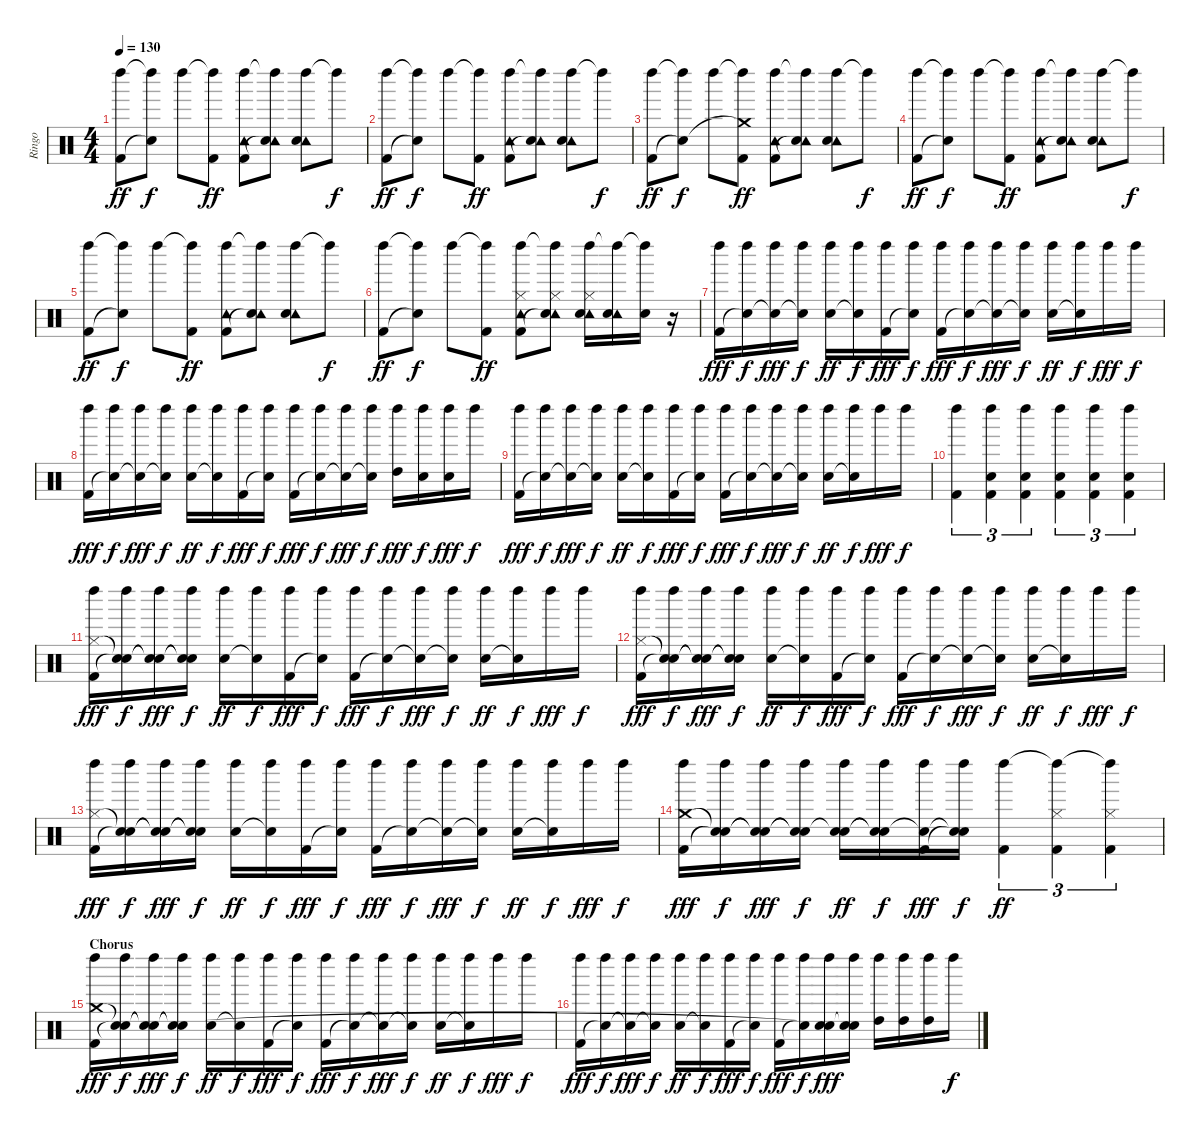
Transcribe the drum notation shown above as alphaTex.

\track ("Ringo" "Ringo") {instrument percussion}
\staff {score}
\articulation defaults
\ts (4 4)
\tempo 130
\clef neutral
\ks c
("Left Maraca (hit)" "Kick (hit) 2").8{dy ff} ("Left Maraca (hit)"{t} "Snare (hit)"{t}).8{dy f} "Left Maraca (hit)".8 ("Left Maraca (hit)"{t} "Kick (hit) 2").8{dy ff} ("Left Maraca (hit)" "Tambourine (hit)" "Kick (hit) 2").8 ("Left Maraca (hit)"{t} "Tambourine (hit)" "Snare (hit)"{t}).8 ("Left Maraca (hit)" "Tambourine (hit)" "Electric Snare (hit)").8 "Left Maraca (hit)"{t}.8{dy f} |
("Left Maraca (hit)" "Kick (hit) 2").8{dy ff} ("Left Maraca (hit)"{t} "Snare (hit)"{t}).8{dy f} "Left Maraca (hit)".8 ("Left Maraca (hit)"{t} "Kick (hit) 2").8{dy ff} ("Left Maraca (hit)" "Tambourine (hit)" "Kick (hit) 2").8 ("Left Maraca (hit)"{t} "Tambourine (hit)" "Snare (hit)"{t}).8 ("Left Maraca (hit)" "Tambourine (hit)" "Electric Snare (hit)").8 "Left Maraca (hit)"{t}.8{dy f} |
("Left Maraca (hit)" "Kick (hit) 2").8{dy ff} ("Left Maraca (hit)"{t} "Snare (hit)"{t}).8{dy f} "Left Maraca (hit)".8 ("Left Maraca (hit)"{t} "Crash medium (hit)"{t} "Kick (hit) 2").8{dy ff} ("Left Maraca (hit)" "Tambourine (hit)" "Kick (hit) 2").8 ("Left Maraca (hit)"{t} "Tambourine (hit)" "Snare (hit)"{t}).8 ("Left Maraca (hit)" "Tambourine (hit)" "Electric Snare (hit)").8 "Left Maraca (hit)"{t}.8{dy f} |
("Left Maraca (hit)" "Kick (hit) 2").8{dy ff} ("Left Maraca (hit)"{t} "Snare (hit)"{t}).8{dy f} "Left Maraca (hit)".8 ("Left Maraca (hit)"{t} "Kick (hit) 2").8{dy ff} ("Left Maraca (hit)" "Tambourine (hit)" "Kick (hit) 2").8 ("Left Maraca (hit)"{t} "Tambourine (hit)" "Snare (hit)"{t}).8 ("Left Maraca (hit)" "Tambourine (hit)" "Electric Snare (hit)").8 "Left Maraca (hit)"{t}.8{dy f} |
("Left Maraca (hit)" "Kick (hit) 2").8{dy ff} ("Left Maraca (hit)"{t} "Snare (hit)"{t}).8{dy f} "Left Maraca (hit)".8 ("Left Maraca (hit)"{t} "Kick (hit) 2").8{dy ff} ("Left Maraca (hit)" "Tambourine (hit)" "Kick (hit) 2").8 ("Left Maraca (hit)"{t} "Tambourine (hit)" "Snare (hit)"{t}).8 ("Left Maraca (hit)" "Tambourine (hit)" "Electric Snare (hit)").8 "Left Maraca (hit)"{t}.8{dy f} |
("Left Maraca (hit)" "Kick (hit) 2").8{dy ff} ("Left Maraca (hit)"{t} "Snare (hit)"{t}).8{dy f} "Left Maraca (hit)".8 ("Left Maraca (hit)"{t} "Kick (hit) 2").8{dy ff} ("Left Maraca (hit)" "Tambourine (hit)" "Hi-Hat (closed)" "Kick (hit) 2").8 ("Left Maraca (hit)"{t} "Tambourine (hit)" "Hi-Hat (closed)" "Snare (hit)"{t}).8 ("Left Maraca (hit)" "Tambourine (hit)" "Hi-Hat (closed)" "Electric Snare (hit)").16 ("Left Maraca (hit)"{t} "Tambourine (hit)" "Electric Snare (hit)").16 ("Left Maraca (hit)"{t} "Electric Snare (hit)").16 r.16 |
("Left Maraca (hit)" "Kick (hit) 2").16{dy fff} ("Left Maraca (hit)" "Snare (hit)"{t}).16{dy f} ("Left Maraca (hit)" "Snare (hit)"{t}).16{dy fff} ("Left Maraca (hit)" "Snare (hit)"{t}).16{dy f} ("Left Maraca (hit)" "Electric Snare (hit)").16{dy ff} ("Left Maraca (hit)" "Snare (hit)"{t}).16{dy f} ("Left Maraca (hit)" "Kick (hit) 2").16{dy fff} ("Left Maraca (hit)" "Snare (hit)"{t}).16{dy f} ("Left Maraca (hit)" "Kick (hit) 2").16{dy fff} ("Left Maraca (hit)" "Snare (hit)"{t}).16{dy f} ("Left Maraca (hit)" "Snare (hit)"{t}).16{dy fff} ("Left Maraca (hit)" "Snare (hit)"{t}).16{dy f} ("Left Maraca (hit)" "Electric Snare (hit)").16{dy ff} ("Left Maraca (hit)" "Snare (hit)"{t}).16{dy f} "Left Maraca (hit)".16{dy fff} "Left Maraca (hit)".16{dy f} |
("Left Maraca (hit)" "Kick (hit) 2").16{dy fff} ("Left Maraca (hit)" "Snare (hit)"{t}).16{dy f} ("Left Maraca (hit)" "Snare (hit)"{t}).16{dy fff} ("Left Maraca (hit)" "Snare (hit)"{t}).16{dy f} ("Left Maraca (hit)" "Electric Snare (hit)").16{dy ff} ("Left Maraca (hit)" "Snare (hit)"{t}).16{dy f} ("Left Maraca (hit)" "Kick (hit) 2").16{dy fff} ("Left Maraca (hit)" "Snare (hit)"{t}).16{dy f} ("Left Maraca (hit)" "Kick (hit) 2").16{dy fff} ("Left Maraca (hit)" "Snare (hit)"{t}).16{dy f} ("Left Maraca (hit)" "Snare (hit)"{t}).16{dy fff} ("Left Maraca (hit)" "Snare (hit)"{t}).16{dy f} ("Left Maraca (hit)" "High Tom (hit)").16{dy fff} ("Left Maraca (hit)" "Electric Snare (hit)").16{dy f} ("Left Maraca (hit)" "Electric Snare (hit)").16{dy fff} "Left Maraca (hit)".16{dy f} |
("Left Maraca (hit)" "Kick (hit) 2").16{dy fff} ("Left Maraca (hit)" "Snare (hit)"{t}).16{dy f} ("Left Maraca (hit)" "Snare (hit)"{t}).16{dy fff} ("Left Maraca (hit)" "Snare (hit)"{t}).16{dy f} ("Left Maraca (hit)" "Electric Snare (hit)").16{dy ff} ("Left Maraca (hit)" "Snare (hit)"{t}).16{dy f} ("Left Maraca (hit)" "Kick (hit) 2").16{dy fff} ("Left Maraca (hit)" "Snare (hit)"{t}).16{dy f} ("Left Maraca (hit)" "Kick (hit) 2").16{dy fff} ("Left Maraca (hit)" "Snare (hit)"{t}).16{dy f} ("Left Maraca (hit)" "Snare (hit)"{t}).16{dy fff} ("Left Maraca (hit)" "Snare (hit)"{t}).16{dy f} ("Left Maraca (hit)" "Electric Snare (hit)").16{dy ff} ("Left Maraca (hit)" "Snare (hit)"{t}).16{dy f} "Left Maraca (hit)".16{dy fff} "Left Maraca (hit)".16{dy f} |
("Left Maraca (hit)" "Kick (hit) 2").4{tu (3 2)} ("Left Maraca (hit)" "Electric Snare (hit)" "Kick (hit) 2").4{tu (3 2)} ("Left Maraca (hit)" "Electric Snare (hit)" "Kick (hit) 2").4{tu (3 2)} ("Left Maraca (hit)" "Electric Snare (hit)" "Kick (hit) 2").4{tu (3 2)} ("Left Maraca (hit)" "Electric Snare (hit)" "Kick (hit) 2").4{tu (3 2)} ("Left Maraca (hit)" "Electric Snare (hit)" "Kick (hit) 2").4{tu (3 2)} |
("Left Maraca (hit)" "Hi-Hat (closed)" "Kick (hit) 2").16{dy fff} ("Left Maraca (hit)" "Snare (hit)"{t} "Snare (hit)"{t}).16{dy f} ("Left Maraca (hit)" "Snare (hit)"{t} "Snare (hit)"{t}).16{dy fff} ("Left Maraca (hit)" "Snare (hit)"{t} "Snare (hit)"{t}).16{dy f} ("Left Maraca (hit)" "Electric Snare (hit)").16{dy ff} ("Left Maraca (hit)" "Snare (hit)"{t}).16{dy f} ("Left Maraca (hit)" "Kick (hit) 2").16{dy fff} ("Left Maraca (hit)" "Snare (hit)"{t}).16{dy f} ("Left Maraca (hit)" "Kick (hit) 2").16{dy fff} ("Left Maraca (hit)" "Snare (hit)"{t}).16{dy f} ("Left Maraca (hit)" "Snare (hit)"{t}).16{dy fff} ("Left Maraca (hit)" "Snare (hit)"{t}).16{dy f} ("Left Maraca (hit)" "Electric Snare (hit)").16{dy ff} ("Left Maraca (hit)" "Snare (hit)"{t}).16{dy f} "Left Maraca (hit)".16{dy fff} "Left Maraca (hit)".16{dy f} |
("Left Maraca (hit)" "Hi-Hat (closed)" "Kick (hit) 2").16{dy fff} ("Left Maraca (hit)" "Snare (hit)"{t} "Snare (hit)"{t}).16{dy f} ("Left Maraca (hit)" "Snare (hit)"{t} "Snare (hit)"{t}).16{dy fff} ("Left Maraca (hit)" "Snare (hit)"{t} "Snare (hit)"{t}).16{dy f} ("Left Maraca (hit)" "Electric Snare (hit)").16{dy ff} ("Left Maraca (hit)" "Snare (hit)"{t}).16{dy f} ("Left Maraca (hit)" "Kick (hit) 2").16{dy fff} ("Left Maraca (hit)" "Snare (hit)"{t}).16{dy f} ("Left Maraca (hit)" "Kick (hit) 2").16{dy fff} ("Left Maraca (hit)" "Snare (hit)"{t}).16{dy f} ("Left Maraca (hit)" "Snare (hit)"{t}).16{dy fff} ("Left Maraca (hit)" "Snare (hit)"{t}).16{dy f} ("Left Maraca (hit)" "Electric Snare (hit)").16{dy ff} ("Left Maraca (hit)" "Snare (hit)"{t}).16{dy f} "Left Maraca (hit)".16{dy fff} "Left Maraca (hit)".16{dy f} |
("Left Maraca (hit)" "Hi-Hat (closed)" "Kick (hit) 2").16{dy fff} ("Left Maraca (hit)" "Snare (hit)"{t} "Snare (hit)"{t}).16{dy f} ("Left Maraca (hit)" "Snare (hit)"{t} "Snare (hit)"{t}).16{dy fff} ("Left Maraca (hit)" "Snare (hit)"{t} "Snare (hit)"{t}).16{dy f} ("Left Maraca (hit)" "Electric Snare (hit)").16{dy ff} ("Left Maraca (hit)" "Snare (hit)"{t}).16{dy f} ("Left Maraca (hit)" "Kick (hit) 2").16{dy fff} ("Left Maraca (hit)" "Snare (hit)"{t}).16{dy f} ("Left Maraca (hit)" "Kick (hit) 2").16{dy fff} ("Left Maraca (hit)" "Snare (hit)"{t}).16{dy f} ("Left Maraca (hit)" "Snare (hit)"{t}).16{dy fff} ("Left Maraca (hit)" "Snare (hit)"{t}).16{dy f} ("Left Maraca (hit)" "Electric Snare (hit)").16{dy ff} ("Left Maraca (hit)" "Snare (hit)"{t}).16{dy f} "Left Maraca (hit)".16{dy fff} "Left Maraca (hit)".16{dy f} |
("Left Maraca (hit)" "Crash medium (hit)" "Kick (hit) 2").16{dy fff} ("Left Maraca (hit)" "Snare (hit)"{t} "Snare (hit)"{t}).16{dy f} ("Left Maraca (hit)" "Snare (hit)"{t} "Snare (hit)"{t}).16{dy fff} ("Left Maraca (hit)" "Snare (hit)"{t} "Snare (hit)"{t}).16{dy f} ("Left Maraca (hit)" "Snare (hit)"{t} "Electric Snare (hit)").16{dy ff} ("Left Maraca (hit)" "Snare (hit)"{t} "Snare (hit)"{t}).16{dy f} ("Left Maraca (hit)" "Snare (hit)"{t} "Kick (hit) 2").16{dy fff} ("Left Maraca (hit)" "Snare (hit)"{t} "Snare (hit)"{t}).16{dy f} ("Left Maraca (hit)" "Kick (hit) 2").4{tu (3 2) dy ff} ("Left Maraca (hit)"{t} "Hi-Hat (closed)" "Kick (hit) 2").4{tu (3 2)} ("Left Maraca (hit)"{t} "Hi-Hat (closed)" "Kick (hit) 2").4{tu (3 2)} |
\section ("" "Chorus")
("Left Maraca (hit)" "Crash medium (hit)" "Kick (hit) 2").16{dy fff} ("Left Maraca (hit)" "Snare (hit)"{t} "Snare (hit)"{t}).16{dy f} ("Left Maraca (hit)" "Snare (hit)"{t} "Snare (hit)"{t}).16{dy fff} ("Left Maraca (hit)" "Snare (hit)"{t} "Snare (hit)"{t}).16{dy f} ("Left Maraca (hit)" "Electric Snare (hit)").16{dy ff} ("Left Maraca (hit)" "Snare (hit)"{t}).16{dy f} ("Left Maraca (hit)" "Kick (hit) 2").16{dy fff} ("Left Maraca (hit)" "Snare (hit)"{t}).16{dy f} ("Left Maraca (hit)" "Kick (hit) 2").16{dy fff} ("Left Maraca (hit)" "Snare (hit)"{t}).16{dy f} ("Left Maraca (hit)" "Snare (hit)"{t}).16{dy fff} ("Left Maraca (hit)" "Snare (hit)"{t}).16{dy f} ("Left Maraca (hit)" "Electric Snare (hit)").16{dy ff} ("Left Maraca (hit)" "Snare (hit)"{t}).16{dy f} "Left Maraca (hit)".16{dy fff} "Left Maraca (hit)".16{dy f} |
("Left Maraca (hit)" "Kick (hit) 2").16{dy fff} ("Left Maraca (hit)" "Snare (hit)"{t}).16{dy f} ("Left Maraca (hit)" "Snare (hit)"{t}).16{dy fff} ("Left Maraca (hit)" "Snare (hit)"{t}).16{dy f} ("Left Maraca (hit)" "Electric Snare (hit)").16{dy ff} ("Left Maraca (hit)" "Snare (hit)"{t}).16{dy f} ("Left Maraca (hit)" "Kick (hit) 2").16{dy fff} ("Left Maraca (hit)" "Snare (hit)"{t}).16{dy f} ("Left Maraca (hit)" "Kick (hit) 2").16{dy fff} ("Left Maraca (hit)" "Snare (hit)"{t}).16{dy f} ("Left Maraca (hit)" "Electric Snare (hit)" "Snare (hit)"{t}).16{dy fff} ("Left Maraca (hit)" "Electric Snare (hit)" "Snare (hit)"{t}).16 ("Left Maraca (hit)" "High Tom (hit)").16 ("Left Maraca (hit)" "High Tom (hit)").16 ("Left Maraca (hit)" "High Tom (hit)").16 "Left Maraca (hit)".16{dy f}
